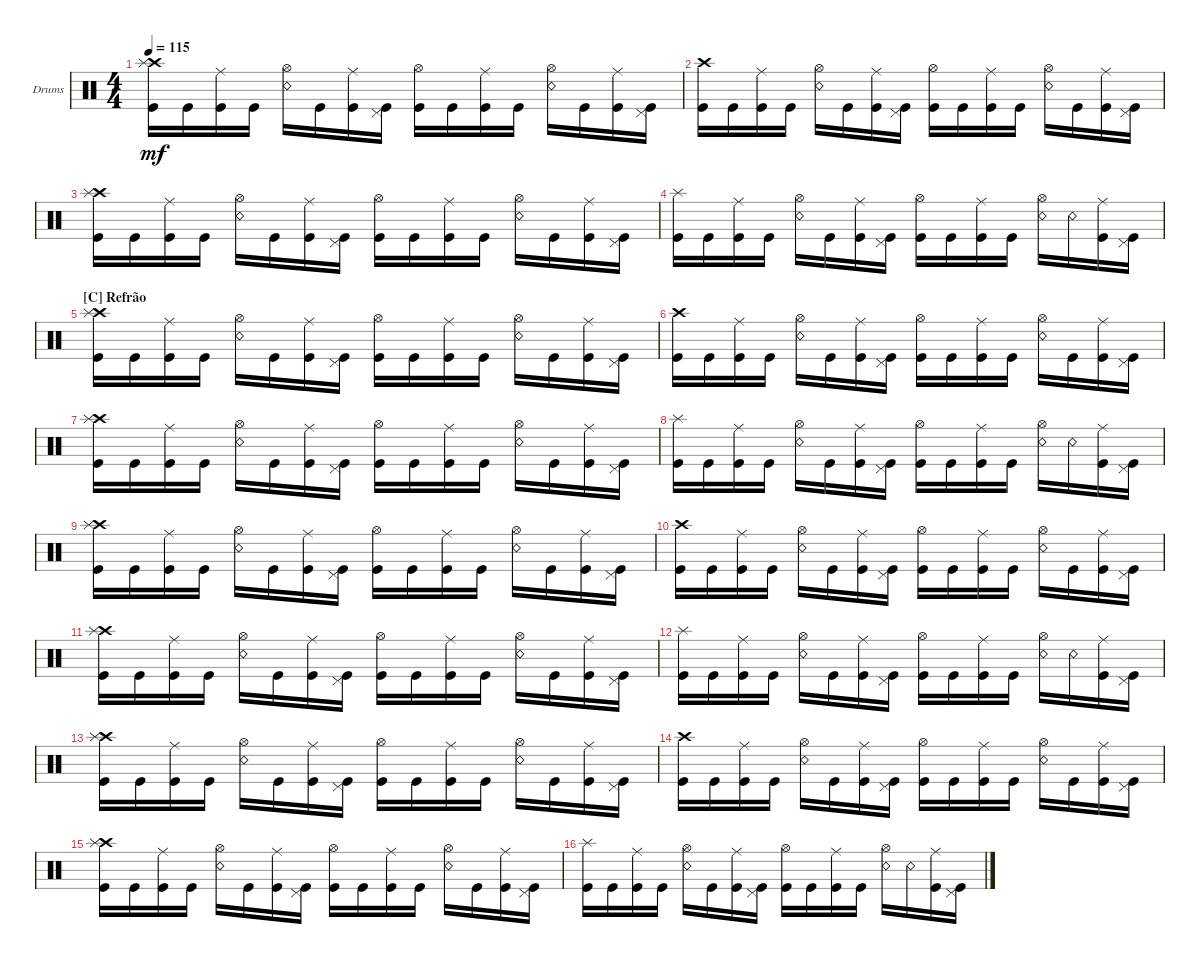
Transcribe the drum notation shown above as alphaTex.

\defaultSystemsLayout 4
\bracketExtendMode groupsimilarinstruments
\firstSystemTrackNameOrientation horizontal
\otherSystemsTrackNameOrientation horizontal
\track ("Drum" "Drums") {multiBarRest instrument percussion}
\staff {score}
\articulation defaults
\ts (4 4)
\tempo 115
\clef neutral
\ks c
("Kick (hit)" "Crash high (hit)" "Splash (hit)").16{dy mf} "Kick (hit)".16 ("Kick (hit)" "Ride (middle)").16 "Kick (hit)".16 ("Snare (rim shot)" "Hi-Hat (open)").16 "Kick (hit)".16 ("Kick (hit)" "Ride (middle)").16 ("Kick (hit)" "Pedal Hi-Hat (hit)").16 ("Kick (hit)" "Hi-Hat (open)").16 "Kick (hit)".16 ("Kick (hit)" "Ride (middle)").16 "Kick (hit)".16 ("Snare (rim shot)" "Hi-Hat (open)").16 "Kick (hit)".16 ("Kick (hit)" "Ride (middle)").16 ("Kick (hit)" "Pedal Hi-Hat (hit)").16 |
("Kick (hit)" "Crash high (hit)").16 "Kick (hit)".16 ("Kick (hit)" "Ride (middle)").16 "Kick (hit)".16 ("Snare (rim shot)" "Hi-Hat (open)").16 "Kick (hit)".16 ("Kick (hit)" "Ride (middle)").16 ("Kick (hit)" "Pedal Hi-Hat (hit)").16 ("Kick (hit)" "Hi-Hat (open)").16 "Kick (hit)".16 ("Kick (hit)" "Ride (middle)").16 "Kick (hit)".16 ("Snare (rim shot)" "Hi-Hat (open)").16 "Kick (hit)".16 ("Kick (hit)" "Ride (middle)").16 ("Kick (hit)" "Pedal Hi-Hat (hit)").16 |
("Kick (hit)" "Crash high (hit)" "Splash (hit)").16 "Kick (hit)".16 ("Kick (hit)" "Ride (middle)").16 "Kick (hit)".16 ("Snare (rim shot)" "Hi-Hat (open)").16 "Kick (hit)".16 ("Kick (hit)" "Ride (middle)").16 ("Kick (hit)" "Pedal Hi-Hat (hit)").16 ("Kick (hit)" "Hi-Hat (open)").16 "Kick (hit)".16 ("Kick (hit)" "Ride (middle)").16 "Kick (hit)".16 ("Snare (rim shot)" "Hi-Hat (open)").16 "Kick (hit)".16 ("Kick (hit)" "Ride (middle)").16 ("Kick (hit)" "Pedal Hi-Hat (hit)").16 |
("Kick (hit)" "Splash (hit)").16 "Kick (hit)".16 ("Kick (hit)" "Ride (middle)").16 "Kick (hit)".16 ("Snare (rim shot)" "Hi-Hat (open)").16 "Kick (hit)".16 ("Kick (hit)" "Ride (middle)").16 ("Kick (hit)" "Pedal Hi-Hat (hit)").16 ("Kick (hit)" "Hi-Hat (open)").16 "Kick (hit)".16 ("Kick (hit)" "Ride (middle)").16 "Kick (hit)".16 ("Snare (rim shot)" "Hi-Hat (open)").16 "Snare (rim shot)".16 ("Kick (hit)" "Ride (middle)").16 ("Kick (hit)" "Pedal Hi-Hat (hit)").16 |
\section ("C" "Refrão")
("Kick (hit)" "Crash high (hit)" "Splash (hit)").16 "Kick (hit)".16 ("Kick (hit)" "Ride (middle)").16 "Kick (hit)".16 ("Snare (rim shot)" "Hi-Hat (open)").16 "Kick (hit)".16 ("Kick (hit)" "Ride (middle)").16 ("Kick (hit)" "Pedal Hi-Hat (hit)").16 ("Kick (hit)" "Hi-Hat (open)").16 "Kick (hit)".16 ("Kick (hit)" "Ride (middle)").16 "Kick (hit)".16 ("Snare (rim shot)" "Hi-Hat (open)").16 "Kick (hit)".16 ("Kick (hit)" "Ride (middle)").16 ("Kick (hit)" "Pedal Hi-Hat (hit)").16 |
("Kick (hit)" "Crash high (hit)").16 "Kick (hit)".16 ("Kick (hit)" "Ride (middle)").16 "Kick (hit)".16 ("Snare (rim shot)" "Hi-Hat (open)").16 "Kick (hit)".16 ("Kick (hit)" "Ride (middle)").16 ("Kick (hit)" "Pedal Hi-Hat (hit)").16 ("Kick (hit)" "Hi-Hat (open)").16 "Kick (hit)".16 ("Kick (hit)" "Ride (middle)").16 "Kick (hit)".16 ("Snare (rim shot)" "Hi-Hat (open)").16 "Kick (hit)".16 ("Kick (hit)" "Ride (middle)").16 ("Kick (hit)" "Pedal Hi-Hat (hit)").16 |
("Kick (hit)" "Crash high (hit)" "Splash (hit)").16 "Kick (hit)".16 ("Kick (hit)" "Ride (middle)").16 "Kick (hit)".16 ("Snare (rim shot)" "Hi-Hat (open)").16 "Kick (hit)".16 ("Kick (hit)" "Ride (middle)").16 ("Kick (hit)" "Pedal Hi-Hat (hit)").16 ("Kick (hit)" "Hi-Hat (open)").16 "Kick (hit)".16 ("Kick (hit)" "Ride (middle)").16 "Kick (hit)".16 ("Snare (rim shot)" "Hi-Hat (open)").16 "Kick (hit)".16 ("Kick (hit)" "Ride (middle)").16 ("Kick (hit)" "Pedal Hi-Hat (hit)").16 |
("Kick (hit)" "Splash (hit)").16 "Kick (hit)".16 ("Kick (hit)" "Ride (middle)").16 "Kick (hit)".16 ("Snare (rim shot)" "Hi-Hat (open)").16 "Kick (hit)".16 ("Kick (hit)" "Ride (middle)").16 ("Kick (hit)" "Pedal Hi-Hat (hit)").16 ("Kick (hit)" "Hi-Hat (open)").16 "Kick (hit)".16 ("Kick (hit)" "Ride (middle)").16 "Kick (hit)".16 ("Snare (rim shot)" "Hi-Hat (open)").16 "Snare (rim shot)".16 ("Kick (hit)" "Ride (middle)").16 ("Kick (hit)" "Pedal Hi-Hat (hit)").16 |
("Kick (hit)" "Crash high (hit)" "Splash (hit)").16 "Kick (hit)".16 ("Kick (hit)" "Ride (middle)").16 "Kick (hit)".16 ("Snare (rim shot)" "Hi-Hat (open)").16 "Kick (hit)".16 ("Kick (hit)" "Ride (middle)").16 ("Kick (hit)" "Pedal Hi-Hat (hit)").16 ("Kick (hit)" "Hi-Hat (open)").16 "Kick (hit)".16 ("Kick (hit)" "Ride (middle)").16 "Kick (hit)".16 ("Snare (rim shot)" "Hi-Hat (open)").16 "Kick (hit)".16 ("Kick (hit)" "Ride (middle)").16 ("Kick (hit)" "Pedal Hi-Hat (hit)").16 |
("Kick (hit)" "Crash high (hit)").16 "Kick (hit)".16 ("Kick (hit)" "Ride (middle)").16 "Kick (hit)".16 ("Snare (rim shot)" "Hi-Hat (open)").16 "Kick (hit)".16 ("Kick (hit)" "Ride (middle)").16 ("Kick (hit)" "Pedal Hi-Hat (hit)").16 ("Kick (hit)" "Hi-Hat (open)").16 "Kick (hit)".16 ("Kick (hit)" "Ride (middle)").16 "Kick (hit)".16 ("Snare (rim shot)" "Hi-Hat (open)").16 "Kick (hit)".16 ("Kick (hit)" "Ride (middle)").16 ("Kick (hit)" "Pedal Hi-Hat (hit)").16 |
("Kick (hit)" "Crash high (hit)" "Splash (hit)").16 "Kick (hit)".16 ("Kick (hit)" "Ride (middle)").16 "Kick (hit)".16 ("Snare (rim shot)" "Hi-Hat (open)").16 "Kick (hit)".16 ("Kick (hit)" "Ride (middle)").16 ("Kick (hit)" "Pedal Hi-Hat (hit)").16 ("Kick (hit)" "Hi-Hat (open)").16 "Kick (hit)".16 ("Kick (hit)" "Ride (middle)").16 "Kick (hit)".16 ("Snare (rim shot)" "Hi-Hat (open)").16 "Kick (hit)".16 ("Kick (hit)" "Ride (middle)").16 ("Kick (hit)" "Pedal Hi-Hat (hit)").16 |
("Kick (hit)" "Splash (hit)").16 "Kick (hit)".16 ("Kick (hit)" "Ride (middle)").16 "Kick (hit)".16 ("Snare (rim shot)" "Hi-Hat (open)").16 "Kick (hit)".16 ("Kick (hit)" "Ride (middle)").16 ("Kick (hit)" "Pedal Hi-Hat (hit)").16 ("Kick (hit)" "Hi-Hat (open)").16 "Kick (hit)".16 ("Kick (hit)" "Ride (middle)").16 "Kick (hit)".16 ("Snare (rim shot)" "Hi-Hat (open)").16 "Snare (rim shot)".16 ("Kick (hit)" "Ride (middle)").16 ("Kick (hit)" "Pedal Hi-Hat (hit)").16 |
("Kick (hit)" "Crash high (hit)" "Splash (hit)").16 "Kick (hit)".16 ("Kick (hit)" "Ride (middle)").16 "Kick (hit)".16 ("Snare (rim shot)" "Hi-Hat (open)").16 "Kick (hit)".16 ("Kick (hit)" "Ride (middle)").16 ("Kick (hit)" "Pedal Hi-Hat (hit)").16 ("Kick (hit)" "Hi-Hat (open)").16 "Kick (hit)".16 ("Kick (hit)" "Ride (middle)").16 "Kick (hit)".16 ("Snare (rim shot)" "Hi-Hat (open)").16 "Kick (hit)".16 ("Kick (hit)" "Ride (middle)").16 ("Kick (hit)" "Pedal Hi-Hat (hit)").16 |
("Kick (hit)" "Crash high (hit)").16 "Kick (hit)".16 ("Kick (hit)" "Ride (middle)").16 "Kick (hit)".16 ("Snare (rim shot)" "Hi-Hat (open)").16 "Kick (hit)".16 ("Kick (hit)" "Ride (middle)").16 ("Kick (hit)" "Pedal Hi-Hat (hit)").16 ("Kick (hit)" "Hi-Hat (open)").16 "Kick (hit)".16 ("Kick (hit)" "Ride (middle)").16 "Kick (hit)".16 ("Snare (rim shot)" "Hi-Hat (open)").16 "Kick (hit)".16 ("Kick (hit)" "Ride (middle)").16 ("Kick (hit)" "Pedal Hi-Hat (hit)").16 |
("Kick (hit)" "Crash high (hit)" "Splash (hit)").16 "Kick (hit)".16 ("Kick (hit)" "Ride (middle)").16 "Kick (hit)".16 ("Snare (rim shot)" "Hi-Hat (open)").16 "Kick (hit)".16 ("Kick (hit)" "Ride (middle)").16 ("Kick (hit)" "Pedal Hi-Hat (hit)").16 ("Kick (hit)" "Hi-Hat (open)").16 "Kick (hit)".16 ("Kick (hit)" "Ride (middle)").16 "Kick (hit)".16 ("Snare (rim shot)" "Hi-Hat (open)").16 "Kick (hit)".16 ("Kick (hit)" "Ride (middle)").16 ("Kick (hit)" "Pedal Hi-Hat (hit)").16 |
("Kick (hit)" "Splash (hit)").16 "Kick (hit)".16 ("Kick (hit)" "Ride (middle)").16 "Kick (hit)".16 ("Snare (rim shot)" "Hi-Hat (open)").16 "Kick (hit)".16 ("Kick (hit)" "Ride (middle)").16 ("Kick (hit)" "Pedal Hi-Hat (hit)").16 ("Kick (hit)" "Hi-Hat (open)").16 "Kick (hit)".16 ("Kick (hit)" "Ride (middle)").16 "Kick (hit)".16 ("Snare (rim shot)" "Hi-Hat (open)").16 "Snare (rim shot)".16 ("Kick (hit)" "Ride (middle)").16 ("Kick (hit)" "Pedal Hi-Hat (hit)").16
